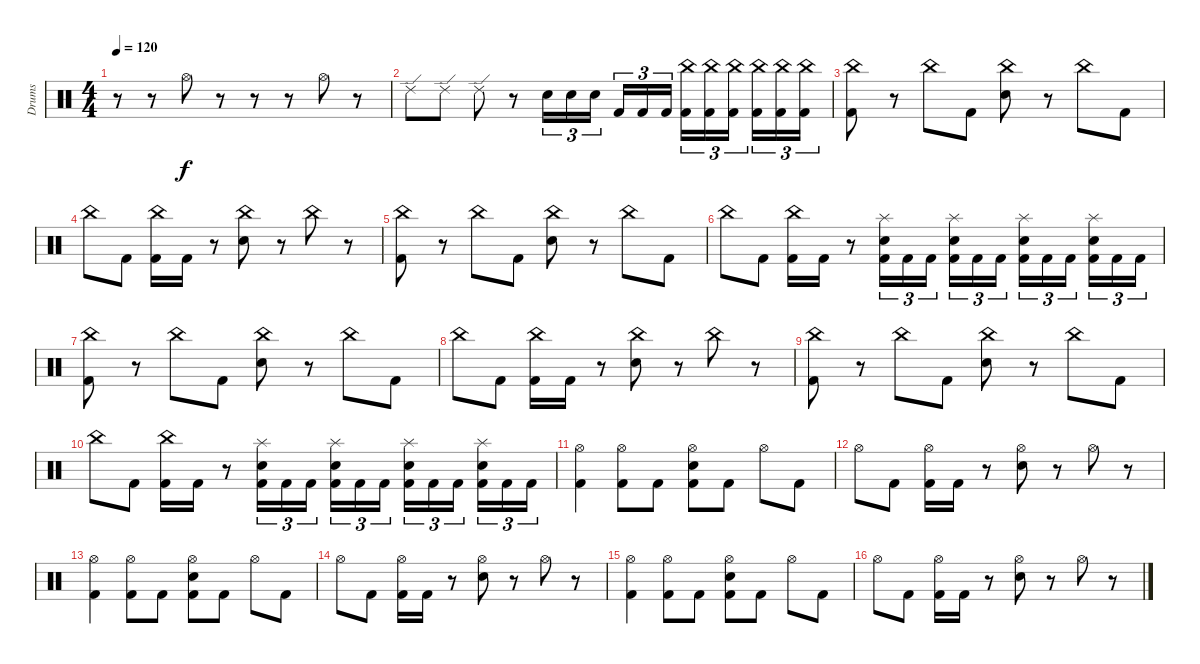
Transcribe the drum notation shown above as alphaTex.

\track ("Drums" "Drums") {instrument percussion}
\staff {score}
\articulation defaults
\ts (4 4)
\tempo 120
\clef neutral
\ks c
r.8{dy f} r.8 "Hi-Hat (open)".8 r.8 r.8 r.8 "Hi-Hat (open)".8 r.8 |
"Ride (edge) 2".8 "Ride (edge) 2".8 "Ride (edge) 2".8 r.8 "Electric Snare (hit)".16{tu (3 2)} "Electric Snare (hit)".16{tu (3 2)} "Electric Snare (hit)".16{tu (3 2) beam splitsecondary} "Kick (hit) 2".16{tu (3 2)} "Kick (hit) 2".16{tu (3 2)} "Kick (hit) 2".16{tu (3 2)} ("China (hit)" "Kick (hit) 2").16{tu (3 2)} ("China (hit)" "Kick (hit) 2").16{tu (3 2)} ("China (hit)" "Kick (hit) 2").16{tu (3 2) beam splitsecondary} ("China (hit)" "Kick (hit) 2").16{tu (3 2)} ("China (hit)" "Kick (hit) 2").16{tu (3 2)} ("China (hit)" "Kick (hit) 2").16{tu (3 2)} |
("China (hit)" "Kick (hit) 2").8 r.8 "China (hit)".8 "Kick (hit) 2".8 ("China (hit)" "Electric Snare (hit)").8 r.8 "China (hit)".8 "Kick (hit) 2".8 |
"China (hit)".8 "Kick (hit) 2".8 ("China (hit)" "Kick (hit) 2").16 "Kick (hit) 2".16 r.8 ("China (hit)" "Electric Snare (hit)").8 r.8 "China (hit)".8 r.8 |
("China (hit)" "Kick (hit) 2").8 r.8 "China (hit)".8 "Kick (hit) 2".8 ("China (hit)" "Electric Snare (hit)").8 r.8 "China (hit)".8 "Kick (hit) 2".8 |
"China (hit)".8 "Kick (hit) 2".8 ("China (hit)" "Kick (hit) 2").16 "Kick (hit) 2".16 r.8 ("Splash (hit)" "Electric Snare (hit)" "Kick (hit) 2").16{tu (3 2)} "Kick (hit) 2".16{tu (3 2)} "Kick (hit) 2".16{tu (3 2) beam splitsecondary} ("Splash (hit)" "Electric Snare (hit)" "Kick (hit) 2").16{tu (3 2)} "Kick (hit) 2".16{tu (3 2)} "Kick (hit) 2".16{tu (3 2)} ("Splash (hit)" "Electric Snare (hit)" "Kick (hit) 2").16{tu (3 2)} "Kick (hit) 2".16{tu (3 2)} "Kick (hit) 2".16{tu (3 2) beam splitsecondary} ("Splash (hit)" "Electric Snare (hit)" "Kick (hit) 2").16{tu (3 2)} "Kick (hit) 2".16{tu (3 2)} "Kick (hit) 2".16{tu (3 2)} |
("China (hit)" "Kick (hit) 2").8 r.8 "China (hit)".8 "Kick (hit) 2".8 ("China (hit)" "Electric Snare (hit)").8 r.8 "China (hit)".8 "Kick (hit) 2".8 |
"China (hit)".8 "Kick (hit) 2".8 ("China (hit)" "Kick (hit) 2").16 "Kick (hit) 2".16 r.8 ("China (hit)" "Electric Snare (hit)").8 r.8 "China (hit)".8 r.8 |
("China (hit)" "Kick (hit) 2").8 r.8 "China (hit)".8 "Kick (hit) 2".8 ("China (hit)" "Electric Snare (hit)").8 r.8 "China (hit)".8 "Kick (hit) 2".8 |
"China (hit)".8 "Kick (hit) 2".8 ("China (hit)" "Kick (hit) 2").16 "Kick (hit) 2".16 r.8 ("Splash (hit)" "Electric Snare (hit)" "Kick (hit) 2").16{tu (3 2)} "Kick (hit) 2".16{tu (3 2)} "Kick (hit) 2".16{tu (3 2) beam splitsecondary} ("Splash (hit)" "Electric Snare (hit)" "Kick (hit) 2").16{tu (3 2)} "Kick (hit) 2".16{tu (3 2)} "Kick (hit) 2".16{tu (3 2)} ("Splash (hit)" "Electric Snare (hit)" "Kick (hit) 2").16{tu (3 2)} "Kick (hit) 2".16{tu (3 2)} "Kick (hit) 2".16{tu (3 2) beam splitsecondary} ("Splash (hit)" "Electric Snare (hit)" "Kick (hit) 2").16{tu (3 2)} "Kick (hit) 2".16{tu (3 2)} "Kick (hit) 2".16{tu (3 2)} |
("Hi-Hat (open)" "Kick (hit) 2").4 ("Hi-Hat (open)" "Kick (hit) 2").8 "Kick (hit) 2".8 ("Hi-Hat (open)" "Electric Snare (hit)" "Kick (hit) 2").8 "Kick (hit) 2".8 "Hi-Hat (open)".8 "Kick (hit) 2".8 |
"Hi-Hat (open)".8 "Kick (hit) 2".8 ("Hi-Hat (open)" "Kick (hit) 2").16 "Kick (hit) 2".16 r.8 ("Hi-Hat (open)" "Electric Snare (hit)").8 r.8 "Hi-Hat (open)".8 r.8 |
("Hi-Hat (open)" "Kick (hit) 2").4 ("Hi-Hat (open)" "Kick (hit) 2").8 "Kick (hit) 2".8 ("Hi-Hat (open)" "Electric Snare (hit)" "Kick (hit) 2").8 "Kick (hit) 2".8 "Hi-Hat (open)".8 "Kick (hit) 2".8 |
"Hi-Hat (open)".8 "Kick (hit) 2".8 ("Hi-Hat (open)" "Kick (hit) 2").16 "Kick (hit) 2".16 r.8 ("Hi-Hat (open)" "Electric Snare (hit)").8 r.8 "Hi-Hat (open)".8 r.8 |
("Hi-Hat (open)" "Kick (hit) 2").4 ("Hi-Hat (open)" "Kick (hit) 2").8 "Kick (hit) 2".8 ("Hi-Hat (open)" "Electric Snare (hit)" "Kick (hit) 2").8 "Kick (hit) 2".8 "Hi-Hat (open)".8 "Kick (hit) 2".8 |
"Hi-Hat (open)".8 "Kick (hit) 2".8 ("Hi-Hat (open)" "Kick (hit) 2").16 "Kick (hit) 2".16 r.8 ("Hi-Hat (open)" "Electric Snare (hit)").8 r.8 "Hi-Hat (open)".8 r.8
